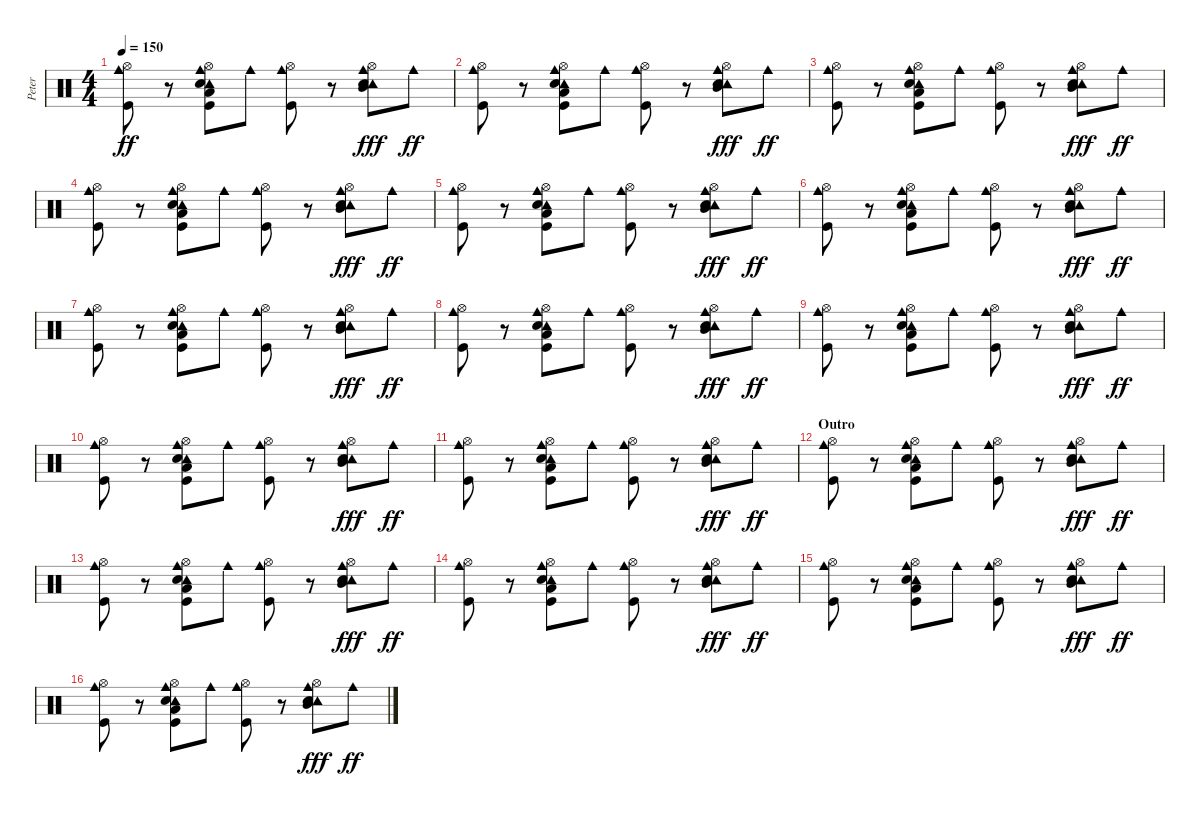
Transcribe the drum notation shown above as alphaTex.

\track ("Peter" "Peter") {instrument percussion}
\staff {score}
\articulation defaults
\ts (4 4)
\tempo 150
\clef neutral
\ks c
("Cowbell medium (hit)" "Hi-Hat (open)" "Kick (hit)").8{dy ff} r.8 ("Cowbell medium (hit)" "Tambourine (hit)" "Hi-Hat (open)" "Hand Clap (hit)" "Low Floor Tom (hit)" "Kick (hit)").8 "Cowbell medium (hit)".8 ("Cowbell medium (hit)" "Hi-Hat (open)" "Kick (hit)").8 r.8 ("Cowbell medium (hit)" "Tambourine (hit)" "Hi-Hat (open)" "Mid Tom (hit)" "Hand Clap (hit)").8{dy fff} "Cowbell medium (hit)".8{dy ff} |
("Cowbell medium (hit)" "Hi-Hat (open)" "Kick (hit)").8 r.8 ("Cowbell medium (hit)" "Tambourine (hit)" "Hi-Hat (open)" "Hand Clap (hit)" "Low Floor Tom (hit)" "Kick (hit)").8 "Cowbell medium (hit)".8 ("Cowbell medium (hit)" "Hi-Hat (open)" "Kick (hit)").8 r.8 ("Cowbell medium (hit)" "Tambourine (hit)" "Hi-Hat (open)" "Mid Tom (hit)" "Hand Clap (hit)").8{dy fff} "Cowbell medium (hit)".8{dy ff} |
("Cowbell medium (hit)" "Hi-Hat (open)" "Kick (hit)").8 r.8 ("Cowbell medium (hit)" "Tambourine (hit)" "Hi-Hat (open)" "Hand Clap (hit)" "Low Floor Tom (hit)" "Kick (hit)").8 "Cowbell medium (hit)".8 ("Cowbell medium (hit)" "Hi-Hat (open)" "Kick (hit)").8 r.8 ("Cowbell medium (hit)" "Tambourine (hit)" "Hi-Hat (open)" "Mid Tom (hit)" "Hand Clap (hit)").8{dy fff} "Cowbell medium (hit)".8{dy ff} |
("Cowbell medium (hit)" "Hi-Hat (open)" "Kick (hit)").8 r.8 ("Cowbell medium (hit)" "Tambourine (hit)" "Hi-Hat (open)" "Hand Clap (hit)" "Low Floor Tom (hit)" "Kick (hit)").8 "Cowbell medium (hit)".8 ("Cowbell medium (hit)" "Hi-Hat (open)" "Kick (hit)").8 r.8 ("Cowbell medium (hit)" "Tambourine (hit)" "Hi-Hat (open)" "Mid Tom (hit)" "Hand Clap (hit)").8{dy fff} "Cowbell medium (hit)".8{dy ff} |
("Cowbell medium (hit)" "Hi-Hat (open)" "Kick (hit)").8 r.8 ("Cowbell medium (hit)" "Tambourine (hit)" "Hi-Hat (open)" "Hand Clap (hit)" "Low Floor Tom (hit)" "Kick (hit)").8 "Cowbell medium (hit)".8 ("Cowbell medium (hit)" "Hi-Hat (open)" "Kick (hit)").8 r.8 ("Cowbell medium (hit)" "Tambourine (hit)" "Hi-Hat (open)" "Mid Tom (hit)" "Hand Clap (hit)").8{dy fff} "Cowbell medium (hit)".8{dy ff} |
("Cowbell medium (hit)" "Hi-Hat (open)" "Kick (hit)").8 r.8 ("Cowbell medium (hit)" "Tambourine (hit)" "Hi-Hat (open)" "Hand Clap (hit)" "Low Floor Tom (hit)" "Kick (hit)").8 "Cowbell medium (hit)".8 ("Cowbell medium (hit)" "Hi-Hat (open)" "Kick (hit)").8 r.8 ("Cowbell medium (hit)" "Tambourine (hit)" "Hi-Hat (open)" "Mid Tom (hit)" "Hand Clap (hit)").8{dy fff} "Cowbell medium (hit)".8{dy ff} |
("Cowbell medium (hit)" "Hi-Hat (open)" "Kick (hit)").8 r.8 ("Cowbell medium (hit)" "Tambourine (hit)" "Hi-Hat (open)" "Hand Clap (hit)" "Low Floor Tom (hit)" "Kick (hit)").8 "Cowbell medium (hit)".8 ("Cowbell medium (hit)" "Hi-Hat (open)" "Kick (hit)").8 r.8 ("Cowbell medium (hit)" "Tambourine (hit)" "Hi-Hat (open)" "Mid Tom (hit)" "Hand Clap (hit)").8{dy fff} "Cowbell medium (hit)".8{dy ff} |
("Cowbell medium (hit)" "Hi-Hat (open)" "Kick (hit)").8 r.8 ("Cowbell medium (hit)" "Tambourine (hit)" "Hi-Hat (open)" "Hand Clap (hit)" "Low Floor Tom (hit)" "Kick (hit)").8 "Cowbell medium (hit)".8 ("Cowbell medium (hit)" "Hi-Hat (open)" "Kick (hit)").8 r.8 ("Cowbell medium (hit)" "Tambourine (hit)" "Hi-Hat (open)" "Mid Tom (hit)" "Hand Clap (hit)").8{dy fff} "Cowbell medium (hit)".8{dy ff} |
("Cowbell medium (hit)" "Hi-Hat (open)" "Kick (hit)").8 r.8 ("Cowbell medium (hit)" "Tambourine (hit)" "Hi-Hat (open)" "Hand Clap (hit)" "Low Floor Tom (hit)" "Kick (hit)").8 "Cowbell medium (hit)".8 ("Cowbell medium (hit)" "Hi-Hat (open)" "Kick (hit)").8 r.8 ("Cowbell medium (hit)" "Tambourine (hit)" "Hi-Hat (open)" "Mid Tom (hit)" "Hand Clap (hit)").8{dy fff} "Cowbell medium (hit)".8{dy ff} |
("Cowbell medium (hit)" "Hi-Hat (open)" "Kick (hit)").8 r.8 ("Cowbell medium (hit)" "Tambourine (hit)" "Hi-Hat (open)" "Hand Clap (hit)" "Low Floor Tom (hit)" "Kick (hit)").8 "Cowbell medium (hit)".8 ("Cowbell medium (hit)" "Hi-Hat (open)" "Kick (hit)").8 r.8 ("Cowbell medium (hit)" "Tambourine (hit)" "Hi-Hat (open)" "Mid Tom (hit)" "Hand Clap (hit)").8{dy fff} "Cowbell medium (hit)".8{dy ff} |
("Cowbell medium (hit)" "Hi-Hat (open)" "Kick (hit)").8 r.8 ("Cowbell medium (hit)" "Tambourine (hit)" "Hi-Hat (open)" "Hand Clap (hit)" "Low Floor Tom (hit)" "Kick (hit)").8 "Cowbell medium (hit)".8 ("Cowbell medium (hit)" "Hi-Hat (open)" "Kick (hit)").8 r.8 ("Cowbell medium (hit)" "Tambourine (hit)" "Hi-Hat (open)" "Mid Tom (hit)" "Hand Clap (hit)").8{dy fff} "Cowbell medium (hit)".8{dy ff} |
\section ("" "Outro")
("Cowbell medium (hit)" "Hi-Hat (open)" "Kick (hit)").8 r.8 ("Cowbell medium (hit)" "Tambourine (hit)" "Hi-Hat (open)" "Hand Clap (hit)" "Low Floor Tom (hit)" "Kick (hit)").8 "Cowbell medium (hit)".8 ("Cowbell medium (hit)" "Hi-Hat (open)" "Kick (hit)").8 r.8 ("Cowbell medium (hit)" "Tambourine (hit)" "Hi-Hat (open)" "Mid Tom (hit)" "Hand Clap (hit)").8{dy fff} "Cowbell medium (hit)".8{dy ff} |
("Cowbell medium (hit)" "Hi-Hat (open)" "Kick (hit)").8 r.8 ("Cowbell medium (hit)" "Tambourine (hit)" "Hi-Hat (open)" "Hand Clap (hit)" "Low Floor Tom (hit)" "Kick (hit)").8 "Cowbell medium (hit)".8 ("Cowbell medium (hit)" "Hi-Hat (open)" "Kick (hit)").8 r.8 ("Cowbell medium (hit)" "Tambourine (hit)" "Hi-Hat (open)" "Mid Tom (hit)" "Hand Clap (hit)").8{dy fff} "Cowbell medium (hit)".8{dy ff} |
("Cowbell medium (hit)" "Hi-Hat (open)" "Kick (hit)").8 r.8 ("Cowbell medium (hit)" "Tambourine (hit)" "Hi-Hat (open)" "Hand Clap (hit)" "Low Floor Tom (hit)" "Kick (hit)").8 "Cowbell medium (hit)".8 ("Cowbell medium (hit)" "Hi-Hat (open)" "Kick (hit)").8 r.8 ("Cowbell medium (hit)" "Tambourine (hit)" "Hi-Hat (open)" "Mid Tom (hit)" "Hand Clap (hit)").8{dy fff} "Cowbell medium (hit)".8{dy ff} |
("Cowbell medium (hit)" "Hi-Hat (open)" "Kick (hit)").8 r.8 ("Cowbell medium (hit)" "Tambourine (hit)" "Hi-Hat (open)" "Hand Clap (hit)" "Low Floor Tom (hit)" "Kick (hit)").8 "Cowbell medium (hit)".8 ("Cowbell medium (hit)" "Hi-Hat (open)" "Kick (hit)").8 r.8 ("Cowbell medium (hit)" "Tambourine (hit)" "Hi-Hat (open)" "Mid Tom (hit)" "Hand Clap (hit)").8{dy fff} "Cowbell medium (hit)".8{dy ff} |
("Cowbell medium (hit)" "Hi-Hat (open)" "Kick (hit)").8 r.8 ("Cowbell medium (hit)" "Tambourine (hit)" "Hi-Hat (open)" "Hand Clap (hit)" "Low Floor Tom (hit)" "Kick (hit)").8 "Cowbell medium (hit)".8 ("Cowbell medium (hit)" "Hi-Hat (open)" "Kick (hit)").8 r.8 ("Cowbell medium (hit)" "Tambourine (hit)" "Hi-Hat (open)" "Mid Tom (hit)" "Hand Clap (hit)").8{dy fff} "Cowbell medium (hit)".8{dy ff}
